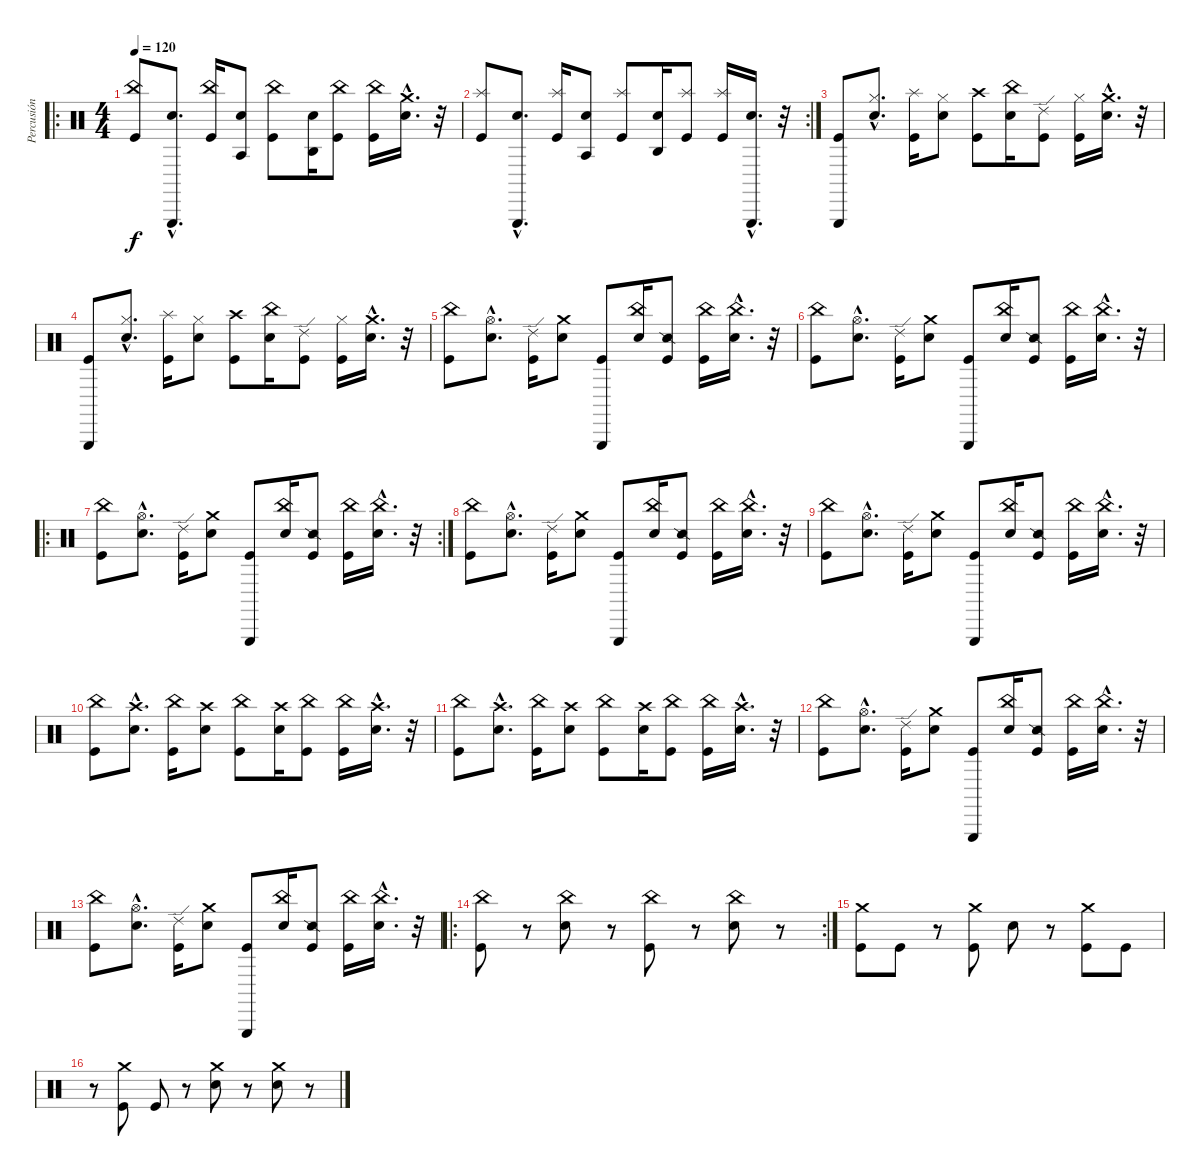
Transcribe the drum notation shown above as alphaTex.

\track ("Percusión" "Percusión") {instrument percussion}
\staff {score}
\articulation defaults
\ro
\ts (4 4)
\tempo 120
\clef neutral
\ks c
("China (hit)" "Kick (hit)").8{dy f} ("Triangle (hit)"{hac} "Snare (hit) 2"{hac}).8{d} ("China (hit)" "Kick (hit)").16 ("Agogo tow (hit)" "Snare (hit) 2").8 ("China (hit)" "Kick (hit)").8 ("Agogo high (hit)" "Snare (hit) 2").16 ("China (hit)" "Kick (hit)").8 ("China (hit)" "Kick (hit)").16 ("Crash medium (hit)"{hac} "Snare (hit) 2"{hac}).16{d} r.32 |
\rc 2
("Splash (hit)" "Kick (hit)").8 ("Triangle (hit)"{hac} "Snare (hit) 2"{hac}).8{d} ("Splash (hit)" "Kick (hit)").16 ("Agogo tow (hit)" "Snare (hit) 2").8 ("Splash (hit)" "Kick (hit)").8 ("Agogo high (hit)" "Snare (hit) 2").16 ("Splash (hit)" "Kick (hit)").8 ("Splash (hit)" "Kick (hit)").16 ("Triangle (hit)"{hac} "Snare (hit) 2"{hac}).16{d} r.32 |
("Triangle (hit)" "Kick (hit)").8 ("Hi-Hat (closed)"{hac} "Snare (hit) 2"{hac}).8{d} ("Splash (hit)" "Kick (hit)").16 ("Hi-Hat (closed)" "Snare (hit) 2").8 ("Crash high (hit)" "Kick (hit)").8 ("China (hit)" "Snare (hit) 2").16 ("Ride (edge) 2" "Kick (hit)").8 ("Hi-Hat (closed)" "Kick (hit)").16 ("Crash medium (hit)"{hac} "Snare (hit) 2"{hac}).16{d} r.32 |
("Triangle (hit)" "Kick (hit)").8 ("Hi-Hat (closed)"{hac} "Snare (hit) 2"{hac}).8{d} ("Splash (hit)" "Kick (hit)").16 ("Hi-Hat (closed)" "Snare (hit) 2").8 ("Crash high (hit)" "Kick (hit)").8 ("China (hit)" "Snare (hit) 2").16 ("Ride (edge) 2" "Kick (hit)").8 ("Hi-Hat (closed)" "Kick (hit)").16 ("Crash medium (hit)"{hac} "Snare (hit) 2"{hac}).16{d} r.32 |
("China (hit)" "Kick (hit)").8 ("Hi-Hat (open)"{hac} "Snare (hit) 2"{hac}).8{d} ("Ride (edge) 2" "Kick (hit)").16 ("Crash medium (hit)" "Snare (hit) 2").8 ("Triangle (hit)" "Kick (hit)").8 ("China (hit)" "Snare (hit) 2").16 ("Snare (side stick) 2" "Kick (hit)").8 ("China (hit)" "Kick (hit)").16 ("China (hit)"{hac} "Snare (hit) 2"{hac}).16{d} r.32 |
("China (hit)" "Kick (hit)").8 ("Hi-Hat (open)"{hac} "Snare (hit) 2"{hac}).8{d} ("Ride (edge) 2" "Kick (hit)").16 ("Crash medium (hit)" "Snare (hit) 2").8 ("Triangle (hit)" "Kick (hit)").8 ("China (hit)" "Snare (hit) 2").16 ("Snare (side stick) 2" "Kick (hit)").8 ("China (hit)" "Kick (hit)").16 ("China (hit)"{hac} "Snare (hit) 2"{hac}).16{d} r.32 |
\ro
\rc 2
("China (hit)" "Kick (hit)").8 ("Hi-Hat (open)"{hac} "Snare (hit) 2"{hac}).8{d} ("Ride (edge) 2" "Kick (hit)").16 ("Crash medium (hit)" "Snare (hit) 2").8 ("Triangle (hit)" "Kick (hit)").8 ("China (hit)" "Snare (hit) 2").16 ("Snare (side stick) 2" "Kick (hit)").8 ("China (hit)" "Kick (hit)").16 ("China (hit)"{hac} "Snare (hit) 2"{hac}).16{d} r.32 |
("China (hit)" "Kick (hit)").8 ("Hi-Hat (open)"{hac} "Snare (hit) 2"{hac}).8{d} ("Ride (edge) 2" "Kick (hit)").16 ("Crash medium (hit)" "Snare (hit) 2").8 ("Triangle (hit)" "Kick (hit)").8 ("China (hit)" "Snare (hit) 2").16 ("Snare (side stick) 2" "Kick (hit)").8 ("China (hit)" "Kick (hit)").16 ("China (hit)"{hac} "Snare (hit) 2"{hac}).16{d} r.32 |
("China (hit)" "Kick (hit)").8 ("Hi-Hat (open)"{hac} "Snare (hit) 2"{hac}).8{d} ("Ride (edge) 2" "Kick (hit)").16 ("Crash medium (hit)" "Snare (hit) 2").8 ("Triangle (hit)" "Kick (hit)").8 ("China (hit)" "Snare (hit) 2").16 ("Snare (side stick) 2" "Kick (hit)").8 ("China (hit)" "Kick (hit)").16 ("China (hit)"{hac} "Snare (hit) 2"{hac}).16{d} r.32 |
("China (hit)" "Kick (hit)").8 ("Crash high (hit)"{hac} "Snare (hit) 2"{hac}).8{d} ("China (hit)" "Kick (hit)").16 ("Crash high (hit)" "Snare (hit) 2").8 ("China (hit)" "Kick (hit)").8 ("Crash high (hit)" "Snare (hit) 2").16 ("China (hit)" "Kick (hit)").8 ("China (hit)" "Kick (hit)").16 ("Crash high (hit)"{hac} "Snare (hit) 2"{hac}).16{d} r.32 |
("China (hit)" "Kick (hit)").8 ("Crash high (hit)"{hac} "Snare (hit) 2"{hac}).8{d} ("China (hit)" "Kick (hit)").16 ("Crash high (hit)" "Snare (hit) 2").8 ("China (hit)" "Kick (hit)").8 ("Crash high (hit)" "Snare (hit) 2").16 ("China (hit)" "Kick (hit)").8 ("China (hit)" "Kick (hit)").16 ("Crash high (hit)"{hac} "Snare (hit) 2"{hac}).16{d} r.32 |
("China (hit)" "Kick (hit)").8 ("Hi-Hat (open)"{hac} "Snare (hit) 2"{hac}).8{d} ("Ride (edge) 2" "Kick (hit)").16 ("Crash medium (hit)" "Snare (hit) 2").8 ("Triangle (hit)" "Kick (hit)").8 ("China (hit)" "Snare (hit) 2").16 ("Snare (side stick) 2" "Kick (hit)").8 ("China (hit)" "Kick (hit)").16 ("China (hit)"{hac} "Snare (hit) 2"{hac}).16{d} r.32 |
("China (hit)" "Kick (hit)").8 ("Hi-Hat (open)"{hac} "Snare (hit) 2"{hac}).8{d} ("Ride (edge) 2" "Kick (hit)").16 ("Crash medium (hit)" "Snare (hit) 2").8 ("Triangle (hit)" "Kick (hit)").8 ("China (hit)" "Snare (hit) 2").16 ("Snare (side stick) 2" "Kick (hit)").8 ("China (hit)" "Kick (hit)").16 ("China (hit)"{hac} "Snare (hit) 2"{hac}).16{d} r.32 |
\ro
\rc 2
("China (hit)" "Kick (hit)").8 r.8 ("China (hit)" "Snare (hit) 2").8 r.8 ("China (hit)" "Kick (hit)").8 r.8 ("China (hit)" "Snare (hit) 2").8 r.8 |
("Crash medium (hit)" "Kick (hit)").8 "Kick (hit)".8 r.8 ("Crash medium (hit)" "Kick (hit)").8 "Snare (hit) 2".8 r.8 ("Crash medium (hit)" "Kick (hit)").8 "Kick (hit)".8 |
r.8 ("Crash medium (hit)" "Kick (hit)").8 "Kick (hit)".8 r.8 ("Crash medium (hit)" "Snare (hit) 2").8 r.8 ("Crash medium (hit)" "Snare (hit) 2").8 r.8
